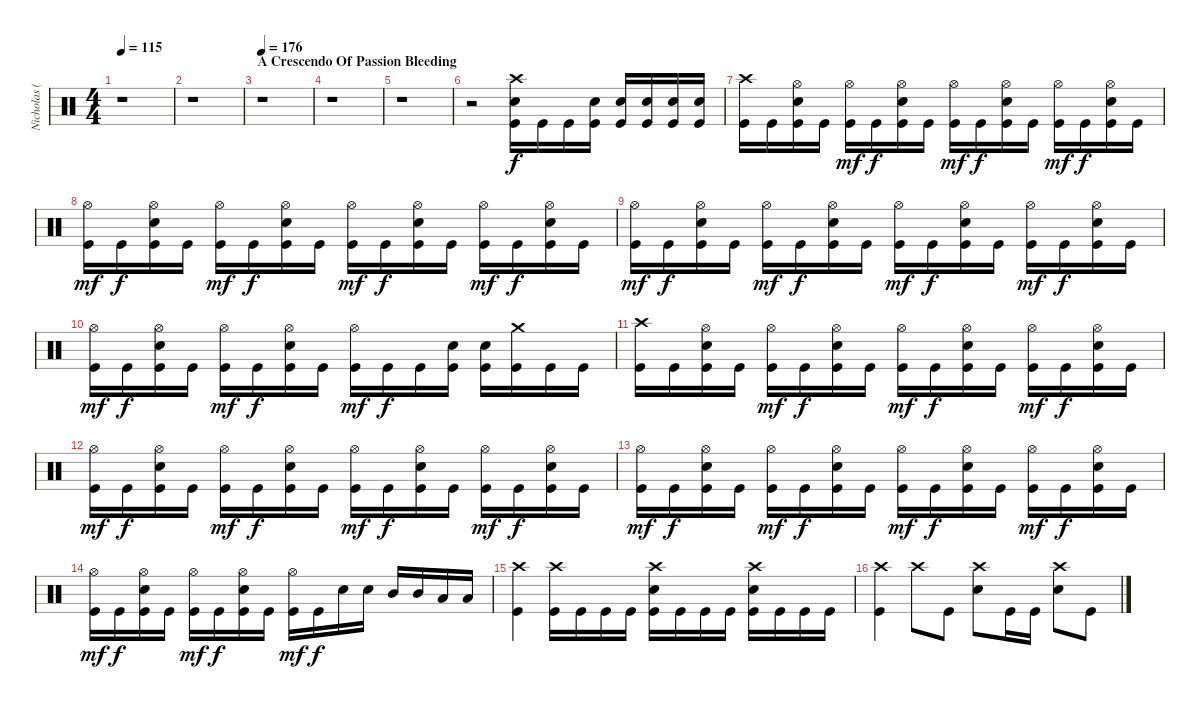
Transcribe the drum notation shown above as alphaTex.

\track ("Nicholas (Drums)" "Nicholas (") {instrument percussion}
\staff {score}
\articulation defaults
\ts (4 4)
\tempo 115
\clef neutral
\ks c
r.1{dy f} |
r.1 |
\section ("" "A Crescendo Of Passion Bleeding")
\tempo 176
r.1 |
r.1 |
r.1 |
r.2 ("Crash high (hit)" "Electric Snare (hit)" "Kick (hit)").16 "Kick (hit)".16 "Kick (hit)".16 ("Electric Snare (hit)" "Kick (hit)").16 ("Electric Snare (hit)" "Kick (hit)").16 ("Electric Snare (hit)" "Kick (hit)").16 ("Electric Snare (hit)" "Kick (hit)").16 ("Electric Snare (hit)" "Kick (hit)").16 |
("Crash high (hit)" "Kick (hit)").16 "Kick (hit)".16 ("Hi-Hat (open)" "Electric Snare (hit)" "Kick (hit)").16 "Kick (hit)".16 ("Hi-Hat (open)" "Kick (hit)").16{dy mf} "Kick (hit)".16{dy f} ("Hi-Hat (open)" "Electric Snare (hit)" "Kick (hit)").16 "Kick (hit)".16 ("Hi-Hat (open)" "Kick (hit)").16{dy mf} "Kick (hit)".16{dy f} ("Hi-Hat (open)" "Electric Snare (hit)" "Kick (hit)").16 "Kick (hit)".16 ("Hi-Hat (open)" "Kick (hit)").16{dy mf} "Kick (hit)".16{dy f} ("Hi-Hat (open)" "Electric Snare (hit)" "Kick (hit)").16 "Kick (hit)".16 |
("Hi-Hat (open)" "Kick (hit)").16{dy mf} "Kick (hit)".16{dy f} ("Hi-Hat (open)" "Electric Snare (hit)" "Kick (hit)").16 "Kick (hit)".16 ("Hi-Hat (open)" "Kick (hit)").16{dy mf} "Kick (hit)".16{dy f} ("Hi-Hat (open)" "Electric Snare (hit)" "Kick (hit)").16 "Kick (hit)".16 ("Hi-Hat (open)" "Kick (hit)").16{dy mf} "Kick (hit)".16{dy f} ("Hi-Hat (open)" "Electric Snare (hit)" "Kick (hit)").16 "Kick (hit)".16 ("Hi-Hat (open)" "Kick (hit)").16{dy mf} "Kick (hit)".16{dy f} ("Hi-Hat (open)" "Electric Snare (hit)" "Kick (hit)").16 "Kick (hit)".16 |
("Hi-Hat (open)" "Kick (hit)").16{dy mf} "Kick (hit)".16{dy f} ("Hi-Hat (open)" "Electric Snare (hit)" "Kick (hit)").16 "Kick (hit)".16 ("Hi-Hat (open)" "Kick (hit)").16{dy mf} "Kick (hit)".16{dy f} ("Hi-Hat (open)" "Electric Snare (hit)" "Kick (hit)").16 "Kick (hit)".16 ("Hi-Hat (open)" "Kick (hit)").16{dy mf} "Kick (hit)".16{dy f} ("Hi-Hat (open)" "Electric Snare (hit)" "Kick (hit)").16 "Kick (hit)".16 ("Hi-Hat (open)" "Kick (hit)").16{dy mf} "Kick (hit)".16{dy f} ("Hi-Hat (open)" "Electric Snare (hit)" "Kick (hit)").16 "Kick (hit)".16 |
("Hi-Hat (open)" "Kick (hit)").16{dy mf} "Kick (hit)".16{dy f} ("Hi-Hat (open)" "Electric Snare (hit)" "Kick (hit)").16 "Kick (hit)".16 ("Hi-Hat (open)" "Kick (hit)").16{dy mf} "Kick (hit)".16{dy f} ("Hi-Hat (open)" "Electric Snare (hit)" "Kick (hit)").16 "Kick (hit)".16 ("Hi-Hat (open)" "Kick (hit)").16{dy mf} "Kick (hit)".16{dy f} "Kick (hit)".16 ("Electric Snare (hit)" "Kick (hit)").16 ("Electric Snare (hit)" "Kick (hit)").16 ("Crash medium (hit)" "Kick (hit)").16 "Kick (hit)".16 "Kick (hit)".16 |
("Crash high (hit)" "Kick (hit)").16 "Kick (hit)".16 ("Hi-Hat (open)" "Electric Snare (hit)" "Kick (hit)").16 "Kick (hit)".16 ("Hi-Hat (open)" "Kick (hit)").16{dy mf} "Kick (hit)".16{dy f} ("Hi-Hat (open)" "Electric Snare (hit)" "Kick (hit)").16 "Kick (hit)".16 ("Hi-Hat (open)" "Kick (hit)").16{dy mf} "Kick (hit)".16{dy f} ("Hi-Hat (open)" "Electric Snare (hit)" "Kick (hit)").16 "Kick (hit)".16 ("Hi-Hat (open)" "Kick (hit)").16{dy mf} "Kick (hit)".16{dy f} ("Hi-Hat (open)" "Electric Snare (hit)" "Kick (hit)").16 "Kick (hit)".16 |
("Hi-Hat (open)" "Kick (hit)").16{dy mf} "Kick (hit)".16{dy f} ("Hi-Hat (open)" "Electric Snare (hit)" "Kick (hit)").16 "Kick (hit)".16 ("Hi-Hat (open)" "Kick (hit)").16{dy mf} "Kick (hit)".16{dy f} ("Hi-Hat (open)" "Electric Snare (hit)" "Kick (hit)").16 "Kick (hit)".16 ("Hi-Hat (open)" "Kick (hit)").16{dy mf} "Kick (hit)".16{dy f} ("Hi-Hat (open)" "Electric Snare (hit)" "Kick (hit)").16 "Kick (hit)".16 ("Hi-Hat (open)" "Kick (hit)").16{dy mf} "Kick (hit)".16{dy f} ("Hi-Hat (open)" "Electric Snare (hit)" "Kick (hit)").16 "Kick (hit)".16 |
("Hi-Hat (open)" "Kick (hit)").16{dy mf} "Kick (hit)".16{dy f} ("Hi-Hat (open)" "Electric Snare (hit)" "Kick (hit)").16 "Kick (hit)".16 ("Hi-Hat (open)" "Kick (hit)").16{dy mf} "Kick (hit)".16{dy f} ("Hi-Hat (open)" "Electric Snare (hit)" "Kick (hit)").16 "Kick (hit)".16 ("Hi-Hat (open)" "Kick (hit)").16{dy mf} "Kick (hit)".16{dy f} ("Hi-Hat (open)" "Electric Snare (hit)" "Kick (hit)").16 "Kick (hit)".16 ("Hi-Hat (open)" "Kick (hit)").16{dy mf} "Kick (hit)".16{dy f} ("Hi-Hat (open)" "Electric Snare (hit)" "Kick (hit)").16 "Kick (hit)".16 |
("Hi-Hat (open)" "Kick (hit)").16{dy mf} "Kick (hit)".16{dy f} ("Hi-Hat (open)" "Electric Snare (hit)" "Kick (hit)").16 "Kick (hit)".16 ("Hi-Hat (open)" "Kick (hit)").16{dy mf} "Kick (hit)".16{dy f} ("Hi-Hat (open)" "Electric Snare (hit)" "Kick (hit)").16 "Kick (hit)".16 ("Hi-Hat (open)" "Kick (hit)").16{dy mf} "Kick (hit)".16{dy f} "Electric Snare (hit)".16 "Electric Snare (hit)".16 "Mid Tom (hit)".16 "Mid Tom (hit)".16 "Low Tom (hit)".16 "Low Tom (hit)".16 |
("Crash high (hit)" "Kick (hit)").4 ("Crash high (hit)" "Kick (hit)").16 "Kick (hit)".16 "Kick (hit)".16 "Kick (hit)".16 ("Crash high (hit)" "Electric Snare (hit)" "Kick (hit)").16 "Kick (hit)".16 "Kick (hit)".16 "Kick (hit)".16 ("Crash high (hit)" "Electric Snare (hit)" "Kick (hit)").16 "Kick (hit)".16 "Kick (hit)".16 "Kick (hit)".16 |
("Crash high (hit)" "Kick (hit)").4 "Crash high (hit)".8 "Kick (hit)".8 ("Crash high (hit)" "Electric Snare (hit)").8 "Kick (hit)".16 "Kick (hit)".16 ("Crash high (hit)" "Electric Snare (hit)").8 "Kick (hit)".8
